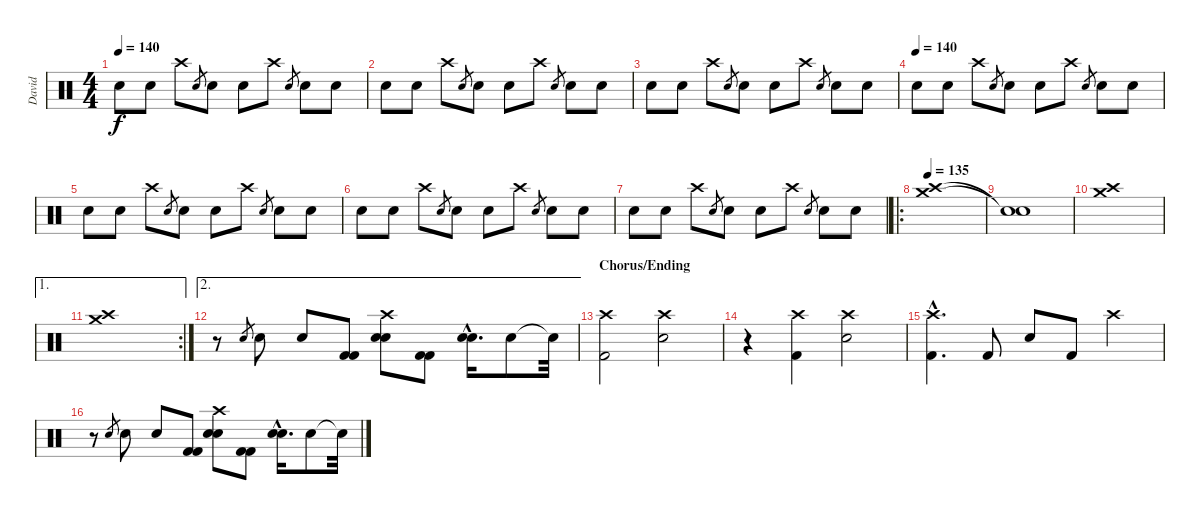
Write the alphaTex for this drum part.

\track ("David" "David") {instrument percussion}
\staff {score}
\articulation defaults
\ts (4 4)
\tempo 140
\clef neutral
\ks c "Electric Snare (hit)".8{dy f} "Electric Snare (hit)".8 "Crash high (hit)".8 "Electric Snare (hit)".8{gr} "Electric Snare (hit)".8 "Electric Snare (hit)".8 "Crash high (hit)".8 "Electric Snare (hit)".8{gr} "Electric Snare (hit)".8 "Electric Snare (hit)".8
|
"Electric Snare (hit)".8 "Electric Snare (hit)".8 "Crash high (hit)".8 "Electric Snare (hit)".8{gr} "Electric Snare (hit)".8 "Electric Snare (hit)".8 "Crash high (hit)".8 "Electric Snare (hit)".8{gr} "Electric Snare (hit)".8 "Electric Snare (hit)".8 |
"Electric Snare (hit)".8 "Electric Snare (hit)".8 "Crash high (hit)".8 "Electric Snare (hit)".8{gr} "Electric Snare (hit)".8 "Electric Snare (hit)".8 "Crash high (hit)".8 "Electric Snare (hit)".8{gr} "Electric Snare (hit)".8 "Electric Snare (hit)".8 |
\tempo (140)
"Electric Snare (hit)".8 "Electric Snare (hit)".8 "Crash high (hit)".8 "Electric Snare (hit)".8{gr} "Electric Snare (hit)".8 "Electric Snare (hit)".8 "Crash high (hit)".8 "Electric Snare (hit)".8{gr} "Electric Snare (hit)".8 "Electric Snare (hit)".8 |
"Electric Snare (hit)".8 "Electric Snare (hit)".8 "Crash high (hit)".8 "Electric Snare (hit)".8{gr} "Electric Snare (hit)".8 "Electric Snare (hit)".8 "Crash high (hit)".8 "Electric Snare (hit)".8{gr} "Electric Snare (hit)".8 "Electric Snare (hit)".8 |
"Electric Snare (hit)".8 "Electric Snare (hit)".8 "Crash high (hit)".8 "Electric Snare (hit)".8{gr} "Electric Snare (hit)".8 "Electric Snare (hit)".8 "Crash high (hit)".8 "Electric Snare (hit)".8{gr} "Electric Snare (hit)".8 "Electric Snare (hit)".8 |
"Electric Snare (hit)".8 "Electric Snare (hit)".8 "Crash high (hit)".8 "Electric Snare (hit)".8{gr} "Electric Snare (hit)".8 "Electric Snare (hit)".8 "Crash high (hit)".8 "Electric Snare (hit)".8{gr} "Electric Snare (hit)".8 "Electric Snare (hit)".8 |
\ro
\tempo 135
("Crash medium (hit)" "Crash high (hit)").1 |
("Snare (hit)"{t} "Snare (hit)"{t}).1 |
("Crash medium (hit)" "Crash high (hit)").1 |
\ae 1
\rc 2
("Crash medium (hit)" "Crash high (hit)").1 |
\ae 2
r.8 "Electric Snare (hit)".8{gr} "Electric Snare (hit)".8 "Electric Snare (hit)".8 ("Kick (hit) 2" "Kick (hit) 2").8 ("Crash high (hit)" "Electric Snare (hit)" "Electric Snare (hit)").8 ("Kick (hit) 2" "Kick (hit) 2").8 ("Electric Snare (hit)"{hac} "Electric Snare (hit)"{hac}).16{d} "Electric Snare (hit)".8 "Snare (hit)"{t}.32 |
\section ("" "Chorus/Ending")
("Crash high (hit)" "Kick (hit) 2").2 ("Crash high (hit)" "Electric Snare (hit)").2 |
r.4 ("Crash high (hit)" "Kick (hit) 2").4 ("Crash high (hit)" "Electric Snare (hit)").2 |
("Crash high (hit)"{hac} "Kick (hit) 2"{hac}).4{d} "Kick (hit) 2".8 "Electric Snare (hit)".8 "Kick (hit) 2".8 "Crash high (hit)".4 |
r.8 "Electric Snare (hit)".8{gr} "Electric Snare (hit)".8 "Electric Snare (hit)".8 ("Kick (hit) 2" "Kick (hit) 2").8 ("Crash high (hit)" "Electric Snare (hit)" "Electric Snare (hit)").8 ("Kick (hit) 2" "Kick (hit) 2").8 ("Electric Snare (hit)"{hac} "Electric Snare (hit)"{hac}).16{d} "Electric Snare (hit)".8 "Snare (hit)"{t}.32
